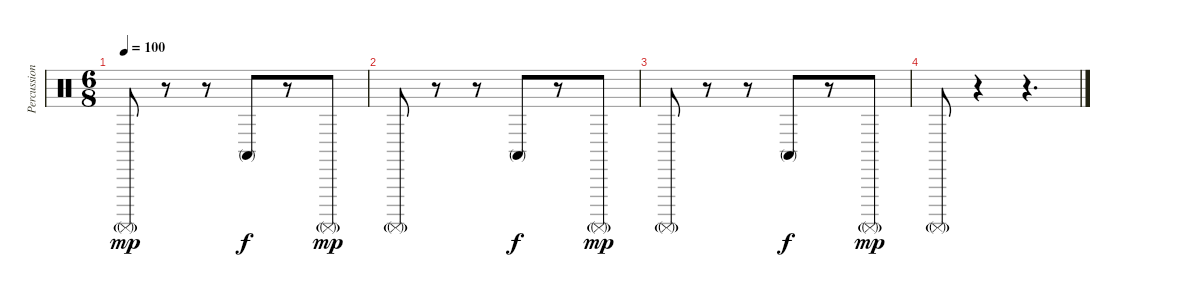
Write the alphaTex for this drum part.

\track ("Percussion" "Percussion") {instrument percussion}
\staff {score}
\articulation defaults
\ts (6 8)
\tempo 100
\clef neutral
\ks c "Surdo (mute)"{g}.8{dy mp}
r.8 r.8 "Conga high (mute)".8{dy f} r.8 "Surdo (mute)"{g}.8{dy mp} |
"Surdo (mute)"{g}.8 r.8 r.8 "Conga high (mute)".8{dy f} r.8 "Surdo (mute)"{g}.8{dy mp} |
"Surdo (mute)"{g}.8 r.8 r.8 "Conga high (mute)".8{dy f} r.8 "Surdo (mute)"{g}.8{dy mp} |
"Surdo (mute)"{g}.8 r.4 r.4{d}
